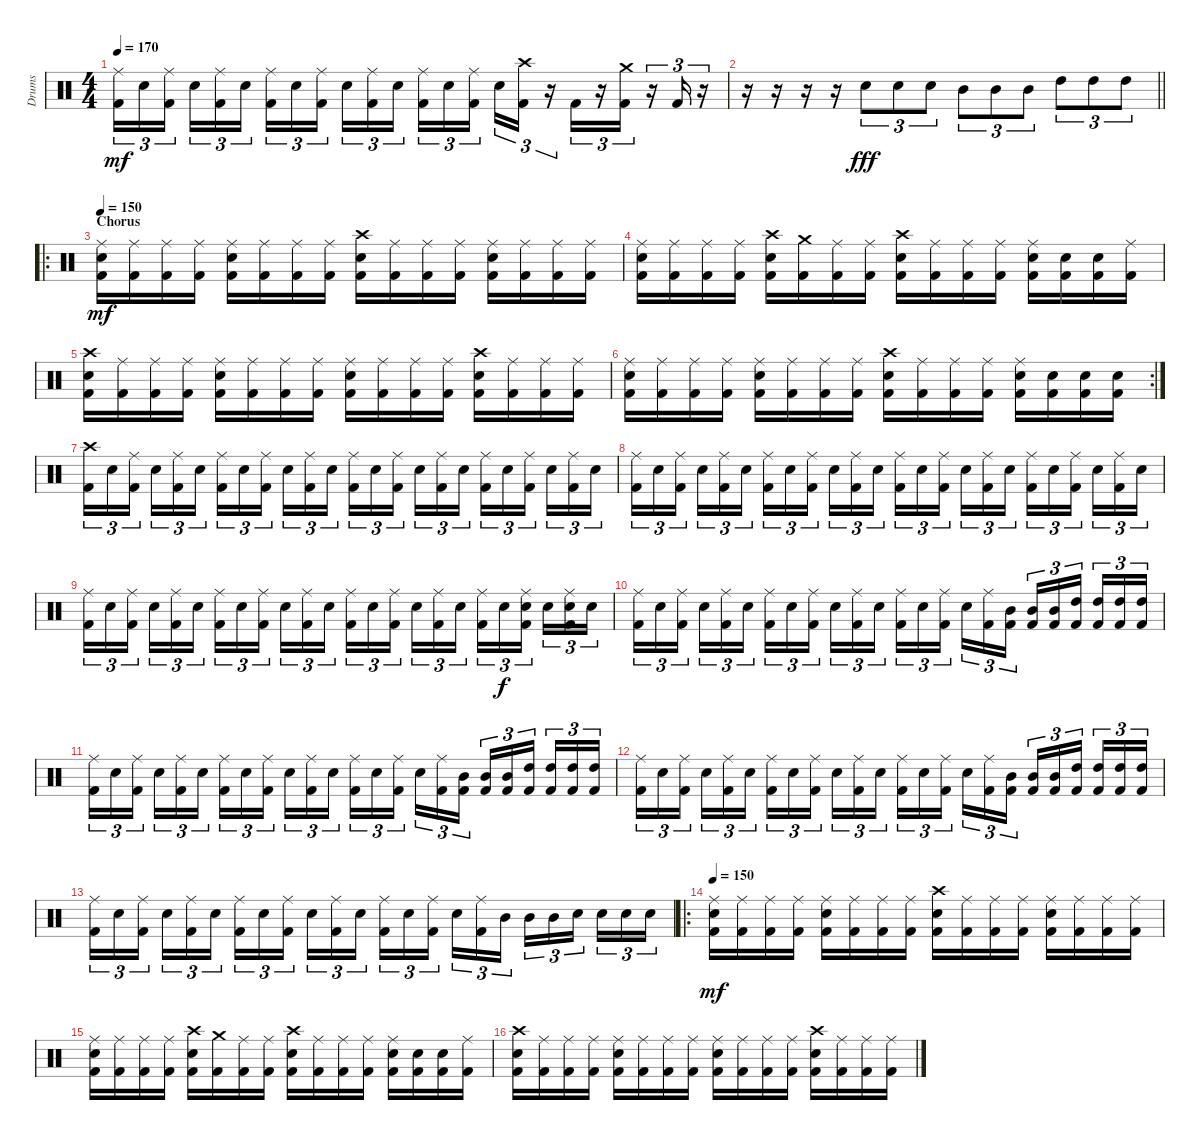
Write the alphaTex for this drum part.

\track ("Drums" "Drums") {instrument percussion}
\staff {score}
\articulation defaults
\ts (4 4)
\tempo 170
\clef neutral
\ks c
("Ride (middle)" "Kick (hit) 2").16{tu (3 2) dy mf} "Snare (hit) 2".16{tu (3 2)} ("Ride (middle)" "Kick (hit) 2").16{tu (3 2) beam splitsecondary} "Snare (hit) 2".16{tu (3 2)} ("Ride (middle)" "Kick (hit) 2").16{tu (3 2)} "Snare (hit) 2".16{tu (3 2)} ("Ride (middle)" "Kick (hit) 2").16{tu (3 2)} "Snare (hit) 2".16{tu (3 2)} ("Ride (middle)" "Kick (hit) 2").16{tu (3 2) beam splitsecondary} "Snare (hit) 2".16{tu (3 2)} ("Ride (middle)" "Kick (hit) 2").16{tu (3 2)} "Snare (hit) 2".16{tu (3 2)} ("Ride (middle)" "Kick (hit) 2").16{tu (3 2)} "Snare (hit) 2".16{tu (3 2)} ("Ride (middle)" "Kick (hit) 2").16{tu (3 2) beam splitsecondary} "Snare (hit) 2".16{tu (3 2)} ("Crash high (hit)" "Kick (hit) 2").16{tu (3 2)} r.16{tu (3 2)} "Kick (hit) 2".16{tu (3 2)} r.16{tu (3 2)} ("Crash medium (hit)" "Kick (hit) 2").16{tu (3 2)} r.16{tu (3 2)} "Kick (hit) 2".16{tu (3 2)} r.16{tu (3 2)} |
\barLineRight lightlight
r.16 r.16 r.16 r.16 "Snare (hit) 2".8{tu (3 2) dy fff} "Snare (hit) 2".8{tu (3 2)} "Snare (hit) 2".8{tu (3 2)} "Mid Tom (hit)".8{tu (3 2)} "Mid Tom (hit)".8{tu (3 2)} "Mid Tom (hit)".8{tu (3 2)} "High Tom (hit)".8{tu (3 2)} "High Tom (hit)".8{tu (3 2)} "High Tom (hit)".8{tu (3 2)} |
\ro
\section ("" "Chorus")
\tempo 150
("Ride (middle)" "Electric Snare (hit)" "Kick (hit) 2").16{dy mf} ("Ride (middle)" "Kick (hit) 2").16 ("Ride (middle)" "Kick (hit) 2").16 ("Ride (middle)" "Kick (hit) 2").16 ("Ride (middle)" "Electric Snare (hit)" "Kick (hit) 2").16 ("Ride (middle)" "Kick (hit) 2").16 ("Ride (middle)" "Kick (hit) 2").16 ("Ride (middle)" "Kick (hit) 2").16 ("Crash high (hit)" "Electric Snare (hit)" "Kick (hit) 2").16 ("Ride (middle)" "Kick (hit) 2").16 ("Ride (middle)" "Kick (hit) 2").16 ("Ride (middle)" "Kick (hit) 2").16 ("Ride (middle)" "Electric Snare (hit)" "Kick (hit) 2").16 ("Ride (middle)" "Kick (hit) 2").16 ("Ride (middle)" "Kick (hit) 2").16 ("Ride (middle)" "Kick (hit) 2").16 |
("Ride (middle)" "Electric Snare (hit)" "Kick (hit) 2").16 ("Ride (middle)" "Kick (hit) 2").16 ("Ride (middle)" "Kick (hit) 2").16 ("Ride (middle)" "Kick (hit) 2").16 ("Crash high (hit)" "Electric Snare (hit)" "Kick (hit) 2").16 ("Crash medium (hit)" "Kick (hit) 2").16 ("Ride (middle)" "Kick (hit) 2").16 ("Ride (middle)" "Kick (hit) 2").16 ("Crash high (hit)" "Electric Snare (hit)" "Kick (hit) 2").16 ("Ride (middle)" "Kick (hit) 2").16 ("Ride (middle)" "Kick (hit) 2").16 ("Ride (middle)" "Kick (hit) 2").16 ("Ride (middle)" "Electric Snare (hit)" "Kick (hit) 2").16 ("Electric Snare (hit)" "Kick (hit) 2").16 ("Electric Snare (hit)" "Kick (hit) 2").16 ("Ride (middle)" "Kick (hit) 2").16 |
("Crash high (hit)" "Electric Snare (hit)" "Kick (hit) 2").16 ("Ride (middle)" "Kick (hit) 2").16 ("Ride (middle)" "Kick (hit) 2").16 ("Ride (middle)" "Kick (hit) 2").16 ("Ride (middle)" "Electric Snare (hit)" "Kick (hit) 2").16 ("Ride (middle)" "Kick (hit) 2").16 ("Ride (middle)" "Kick (hit) 2").16 ("Ride (middle)" "Kick (hit) 2").16 ("Ride (middle)" "Electric Snare (hit)" "Kick (hit) 2").16 ("Ride (middle)" "Kick (hit) 2").16 ("Ride (middle)" "Kick (hit) 2").16 ("Ride (middle)" "Kick (hit) 2").16 ("Crash high (hit)" "Electric Snare (hit)" "Kick (hit) 2").16 ("Ride (middle)" "Kick (hit) 2").16 ("Ride (middle)" "Kick (hit) 2").16 ("Ride (middle)" "Kick (hit) 2").16 |
\rc 2
("Ride (middle)" "Electric Snare (hit)" "Kick (hit) 2").16 ("Ride (middle)" "Kick (hit) 2").16 ("Ride (middle)" "Kick (hit) 2").16 ("Ride (middle)" "Kick (hit) 2").16 ("Ride (middle)" "Electric Snare (hit)" "Kick (hit) 2").16 ("Ride (middle)" "Kick (hit) 2").16 ("Ride (middle)" "Kick (hit) 2").16 ("Ride (middle)" "Kick (hit) 2").16 ("Crash high (hit)" "Electric Snare (hit)" "Kick (hit) 2").16 ("Ride (middle)" "Kick (hit) 2").16 ("Ride (middle)" "Kick (hit) 2").16 ("Ride (middle)" "Kick (hit) 2").16 ("Ride (middle)" "Electric Snare (hit)" "Kick (hit) 2").16 ("Electric Snare (hit)" "Kick (hit) 2").16 ("Electric Snare (hit)" "Kick (hit) 2").16 ("Electric Snare (hit)" "Kick (hit) 2").16 |
("Crash high (hit)" "Kick (hit) 2").16{tu (3 2)} "Snare (hit) 2".16{tu (3 2)} ("Ride (middle)" "Kick (hit) 2").16{tu (3 2) beam splitsecondary} "Snare (hit) 2".16{tu (3 2)} ("Ride (middle)" "Kick (hit) 2").16{tu (3 2)} "Snare (hit) 2".16{tu (3 2)} ("Ride (middle)" "Kick (hit) 2").16{tu (3 2)} "Snare (hit) 2".16{tu (3 2)} ("Ride (middle)" "Kick (hit) 2").16{tu (3 2) beam splitsecondary} "Snare (hit) 2".16{tu (3 2)} ("Ride (middle)" "Kick (hit) 2").16{tu (3 2)} "Snare (hit) 2".16{tu (3 2)} ("Ride (middle)" "Kick (hit) 2").16{tu (3 2)} "Snare (hit) 2".16{tu (3 2)} ("Ride (middle)" "Kick (hit) 2").16{tu (3 2) beam splitsecondary} "Snare (hit) 2".16{tu (3 2)} ("Ride (middle)" "Kick (hit) 2").16{tu (3 2)} "Snare (hit) 2".16{tu (3 2)} ("Ride (middle)" "Kick (hit) 2").16{tu (3 2)} "Snare (hit) 2".16{tu (3 2)} ("Ride (middle)" "Kick (hit) 2").16{tu (3 2) beam splitsecondary} "Snare (hit) 2".16{tu (3 2)} ("Ride (middle)" "Kick (hit) 2").16{tu (3 2)} "Snare (hit) 2".16{tu (3 2)} |
("Ride (middle)" "Kick (hit) 2").16{tu (3 2)} "Snare (hit) 2".16{tu (3 2)} ("Ride (middle)" "Kick (hit) 2").16{tu (3 2) beam splitsecondary} "Snare (hit) 2".16{tu (3 2)} ("Ride (middle)" "Kick (hit) 2").16{tu (3 2)} "Snare (hit) 2".16{tu (3 2)} ("Ride (middle)" "Kick (hit) 2").16{tu (3 2)} "Snare (hit) 2".16{tu (3 2)} ("Ride (middle)" "Kick (hit) 2").16{tu (3 2) beam splitsecondary} "Snare (hit) 2".16{tu (3 2)} ("Ride (middle)" "Kick (hit) 2").16{tu (3 2)} "Snare (hit) 2".16{tu (3 2)} ("Ride (middle)" "Kick (hit) 2").16{tu (3 2)} "Snare (hit) 2".16{tu (3 2)} ("Ride (middle)" "Kick (hit) 2").16{tu (3 2) beam splitsecondary} "Snare (hit) 2".16{tu (3 2)} ("Ride (middle)" "Kick (hit) 2").16{tu (3 2)} "Snare (hit) 2".16{tu (3 2)} ("Ride (middle)" "Kick (hit) 2").16{tu (3 2)} "Snare (hit) 2".16{tu (3 2)} ("Ride (middle)" "Kick (hit) 2").16{tu (3 2) beam splitsecondary} "Snare (hit) 2".16{tu (3 2)} ("Ride (middle)" "Kick (hit) 2").16{tu (3 2)} "Snare (hit) 2".16{tu (3 2)} |
("Ride (middle)" "Kick (hit) 2").16{tu (3 2)} "Snare (hit) 2".16{tu (3 2)} ("Ride (middle)" "Kick (hit) 2").16{tu (3 2) beam splitsecondary} "Snare (hit) 2".16{tu (3 2)} ("Ride (middle)" "Kick (hit) 2").16{tu (3 2)} "Snare (hit) 2".16{tu (3 2)} ("Ride (middle)" "Kick (hit) 2").16{tu (3 2)} "Snare (hit) 2".16{tu (3 2)} ("Ride (middle)" "Kick (hit) 2").16{tu (3 2) beam splitsecondary} "Snare (hit) 2".16{tu (3 2)} ("Ride (middle)" "Kick (hit) 2").16{tu (3 2)} "Snare (hit) 2".16{tu (3 2)} ("Ride (middle)" "Kick (hit) 2").16{tu (3 2)} "Snare (hit) 2".16{tu (3 2)} ("Ride (middle)" "Kick (hit) 2").16{tu (3 2) beam splitsecondary} "Snare (hit) 2".16{tu (3 2)} ("Ride (middle)" "Kick (hit) 2").16{tu (3 2)} "Snare (hit) 2".16{tu (3 2)} ("Ride (middle)" "Kick (hit) 2").16{tu (3 2)} "Electric Snare (hit)".16{tu (3 2) dy f} ("Ride (middle)" "Electric Snare (hit)" "Kick (hit) 2").16{tu (3 2) beam splitsecondary} "Electric Snare (hit)".16{tu (3 2)} ("Ride (middle)" "Electric Snare (hit)" "Kick (hit) 2").16{tu (3 2)} "Electric Snare (hit)".16{tu (3 2)} |
("Ride (middle)" "Kick (hit) 2").16{tu (3 2)} "Electric Snare (hit)".16{tu (3 2)} ("Ride (middle)" "Kick (hit) 2").16{tu (3 2) beam splitsecondary} "Electric Snare (hit)".16{tu (3 2)} ("Ride (middle)" "Kick (hit) 2").16{tu (3 2)} "Electric Snare (hit)".16{tu (3 2)} ("Ride (middle)" "Kick (hit) 2").16{tu (3 2)} "Electric Snare (hit)".16{tu (3 2)} ("Ride (middle)" "Kick (hit) 2").16{tu (3 2) beam splitsecondary} "Electric Snare (hit)".16{tu (3 2)} ("Ride (middle)" "Kick (hit) 2").16{tu (3 2)} "Electric Snare (hit)".16{tu (3 2)} ("Ride (middle)" "Kick (hit) 2").16{tu (3 2)} "Electric Snare (hit)".16{tu (3 2)} ("Ride (middle)" "Kick (hit) 2").16{tu (3 2) beam splitsecondary} "Electric Snare (hit)".16{tu (3 2)} ("Ride (middle)" "Kick (hit) 2").16{tu (3 2)} ("Mid Tom (hit)" "Kick (hit) 2").16{tu (3 2)} ("Mid Tom (hit)" "Kick (hit) 2").16{tu (3 2)} ("Mid Tom (hit)" "Kick (hit) 2").16{tu (3 2)} ("High Tom (hit)" "Kick (hit) 2").16{tu (3 2) beam splitsecondary} ("High Tom (hit)" "Kick (hit) 2").16{tu (3 2)} ("High Tom (hit)" "Kick (hit) 2").16{tu (3 2)} ("High Tom (hit)" "Kick (hit) 2").16{tu (3 2)} |
("Ride (middle)" "Kick (hit) 2").16{tu (3 2)} "Electric Snare (hit)".16{tu (3 2)} ("Ride (middle)" "Kick (hit) 2").16{tu (3 2) beam splitsecondary} "Electric Snare (hit)".16{tu (3 2)} ("Ride (middle)" "Kick (hit) 2").16{tu (3 2)} "Electric Snare (hit)".16{tu (3 2)} ("Ride (middle)" "Kick (hit) 2").16{tu (3 2)} "Electric Snare (hit)".16{tu (3 2)} ("Ride (middle)" "Kick (hit) 2").16{tu (3 2) beam splitsecondary} "Electric Snare (hit)".16{tu (3 2)} ("Ride (middle)" "Kick (hit) 2").16{tu (3 2)} "Electric Snare (hit)".16{tu (3 2)} ("Ride (middle)" "Kick (hit) 2").16{tu (3 2)} "Electric Snare (hit)".16{tu (3 2)} ("Ride (middle)" "Kick (hit) 2").16{tu (3 2) beam splitsecondary} "Electric Snare (hit)".16{tu (3 2)} ("Ride (middle)" "Kick (hit) 2").16{tu (3 2)} ("Mid Tom (hit)" "Kick (hit) 2").16{tu (3 2)} ("Mid Tom (hit)" "Kick (hit) 2").16{tu (3 2)} ("Mid Tom (hit)" "Kick (hit) 2").16{tu (3 2)} ("High Tom (hit)" "Kick (hit) 2").16{tu (3 2) beam splitsecondary} ("High Tom (hit)" "Kick (hit) 2").16{tu (3 2)} ("High Tom (hit)" "Kick (hit) 2").16{tu (3 2)} ("High Tom (hit)" "Kick (hit) 2").16{tu (3 2)} |
("Ride (middle)" "Kick (hit) 2").16{tu (3 2)} "Electric Snare (hit)".16{tu (3 2)} ("Ride (middle)" "Kick (hit) 2").16{tu (3 2) beam splitsecondary} "Electric Snare (hit)".16{tu (3 2)} ("Ride (middle)" "Kick (hit) 2").16{tu (3 2)} "Electric Snare (hit)".16{tu (3 2)} ("Ride (middle)" "Kick (hit) 2").16{tu (3 2)} "Electric Snare (hit)".16{tu (3 2)} ("Ride (middle)" "Kick (hit) 2").16{tu (3 2) beam splitsecondary} "Electric Snare (hit)".16{tu (3 2)} ("Ride (middle)" "Kick (hit) 2").16{tu (3 2)} "Electric Snare (hit)".16{tu (3 2)} ("Ride (middle)" "Kick (hit) 2").16{tu (3 2)} "Electric Snare (hit)".16{tu (3 2)} ("Ride (middle)" "Kick (hit) 2").16{tu (3 2) beam splitsecondary} "Electric Snare (hit)".16{tu (3 2)} ("Ride (middle)" "Kick (hit) 2").16{tu (3 2)} ("Mid Tom (hit)" "Kick (hit) 2").16{tu (3 2)} ("Mid Tom (hit)" "Kick (hit) 2").16{tu (3 2)} ("Mid Tom (hit)" "Kick (hit) 2").16{tu (3 2)} ("High Tom (hit)" "Kick (hit) 2").16{tu (3 2) beam splitsecondary} ("High Tom (hit)" "Kick (hit) 2").16{tu (3 2)} ("High Tom (hit)" "Kick (hit) 2").16{tu (3 2)} ("High Tom (hit)" "Kick (hit) 2").16{tu (3 2)} |
("Ride (middle)" "Kick (hit) 2").16{tu (3 2)} "Electric Snare (hit)".16{tu (3 2)} ("Ride (middle)" "Kick (hit) 2").16{tu (3 2) beam splitsecondary} "Electric Snare (hit)".16{tu (3 2)} ("Ride (middle)" "Kick (hit) 2").16{tu (3 2)} "Electric Snare (hit)".16{tu (3 2)} ("Ride (middle)" "Kick (hit) 2").16{tu (3 2)} "Electric Snare (hit)".16{tu (3 2)} ("Ride (middle)" "Kick (hit) 2").16{tu (3 2) beam splitsecondary} "Electric Snare (hit)".16{tu (3 2)} ("Ride (middle)" "Kick (hit) 2").16{tu (3 2)} "Electric Snare (hit)".16{tu (3 2)} ("Ride (middle)" "Kick (hit) 2").16{tu (3 2)} "Electric Snare (hit)".16{tu (3 2)} ("Ride (middle)" "Kick (hit) 2").16{tu (3 2) beam splitsecondary} "Electric Snare (hit)".16{tu (3 2)} ("Ride (middle)" "Kick (hit) 2").16{tu (3 2)} "Mid Tom (hit)".16{tu (3 2)} "Mid Tom (hit)".16{tu (3 2)} "Mid Tom (hit)".16{tu (3 2)} "Electric Snare (hit)".16{tu (3 2) beam splitsecondary} "Electric Snare (hit)".16{tu (3 2)} "Electric Snare (hit)".16{tu (3 2)} "Electric Snare (hit)".16{tu (3 2)} |
\ro
\tempo 150
("Ride (middle)" "Electric Snare (hit)" "Kick (hit) 2").16{dy mf} ("Ride (middle)" "Kick (hit) 2").16 ("Ride (middle)" "Kick (hit) 2").16 ("Ride (middle)" "Kick (hit) 2").16 ("Ride (middle)" "Electric Snare (hit)" "Kick (hit) 2").16 ("Ride (middle)" "Kick (hit) 2").16 ("Ride (middle)" "Kick (hit) 2").16 ("Ride (middle)" "Kick (hit) 2").16 ("Crash high (hit)" "Electric Snare (hit)" "Kick (hit) 2").16 ("Ride (middle)" "Kick (hit) 2").16 ("Ride (middle)" "Kick (hit) 2").16 ("Ride (middle)" "Kick (hit) 2").16 ("Ride (middle)" "Electric Snare (hit)" "Kick (hit) 2").16 ("Ride (middle)" "Kick (hit) 2").16 ("Ride (middle)" "Kick (hit) 2").16 ("Ride (middle)" "Kick (hit) 2").16 |
("Ride (middle)" "Electric Snare (hit)" "Kick (hit) 2").16 ("Ride (middle)" "Kick (hit) 2").16 ("Ride (middle)" "Kick (hit) 2").16 ("Ride (middle)" "Kick (hit) 2").16 ("Crash high (hit)" "Electric Snare (hit)" "Kick (hit) 2").16 ("Crash medium (hit)" "Kick (hit) 2").16 ("Ride (middle)" "Kick (hit) 2").16 ("Ride (middle)" "Kick (hit) 2").16 ("Crash high (hit)" "Electric Snare (hit)" "Kick (hit) 2").16 ("Ride (middle)" "Kick (hit) 2").16 ("Ride (middle)" "Kick (hit) 2").16 ("Ride (middle)" "Kick (hit) 2").16 ("Ride (middle)" "Electric Snare (hit)" "Kick (hit) 2").16 ("Electric Snare (hit)" "Kick (hit) 2").16 ("Electric Snare (hit)" "Kick (hit) 2").16 ("Ride (middle)" "Kick (hit) 2").16 |
("Crash high (hit)" "Electric Snare (hit)" "Kick (hit) 2").16 ("Ride (middle)" "Kick (hit) 2").16 ("Ride (middle)" "Kick (hit) 2").16 ("Ride (middle)" "Kick (hit) 2").16 ("Ride (middle)" "Electric Snare (hit)" "Kick (hit) 2").16 ("Ride (middle)" "Kick (hit) 2").16 ("Ride (middle)" "Kick (hit) 2").16 ("Ride (middle)" "Kick (hit) 2").16 ("Ride (middle)" "Electric Snare (hit)" "Kick (hit) 2").16 ("Ride (middle)" "Kick (hit) 2").16 ("Ride (middle)" "Kick (hit) 2").16 ("Ride (middle)" "Kick (hit) 2").16 ("Crash high (hit)" "Electric Snare (hit)" "Kick (hit) 2").16 ("Ride (middle)" "Kick (hit) 2").16 ("Ride (middle)" "Kick (hit) 2").16 ("Ride (middle)" "Kick (hit) 2").16
